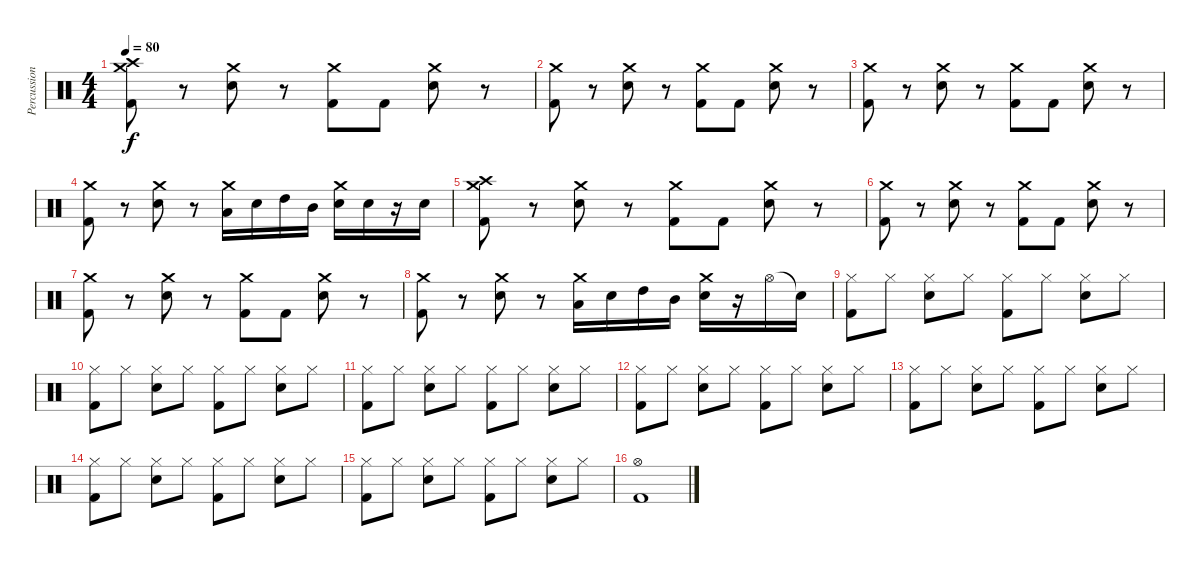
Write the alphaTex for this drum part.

\track ("Percussion" "Percussion") {instrument percussion}
\staff {score}
\articulation defaults
\ts (4 4)
\tempo 80
\clef neutral
\ks c
("Kick (hit) 2" "Crash medium (hit)" "Crash high (hit)").8{dy f} r.8 ("Electric Snare (hit)" "Crash medium (hit)").8 r.8 ("Kick (hit) 2" "Crash medium (hit)").8 "Kick (hit) 2".8 ("Electric Snare (hit)" "Crash medium (hit)").8 r.8 |
("Kick (hit) 2" "Crash medium (hit)").8 r.8 ("Electric Snare (hit)" "Crash medium (hit)").8 r.8 ("Kick (hit) 2" "Crash medium (hit)").8 "Kick (hit) 2".8 ("Electric Snare (hit)" "Crash medium (hit)").8 r.8 |
("Kick (hit) 2" "Crash medium (hit)").8 r.8 ("Electric Snare (hit)" "Crash medium (hit)").8 r.8 ("Kick (hit) 2" "Crash medium (hit)").8 "Kick (hit) 2".8 ("Electric Snare (hit)" "Crash medium (hit)").8 r.8 |
("Kick (hit) 2" "Crash medium (hit)").8 r.8 ("Electric Snare (hit)" "Crash medium (hit)").8 r.8 ("Low Tom (hit)" "Crash medium (hit)").16 "Electric Snare (hit)".16 "High Tom (hit)".16 "Mid Tom (hit)".16 ("Electric Snare (hit)" "Crash medium (hit)").16 "Electric Snare (hit)".16 r.16 "Electric Snare (hit)".16 |
("Kick (hit) 2" "Crash medium (hit)" "Crash high (hit)").8 r.8 ("Electric Snare (hit)" "Crash medium (hit)").8 r.8 ("Kick (hit) 2" "Crash medium (hit)").8 "Kick (hit) 2".8 ("Electric Snare (hit)" "Crash medium (hit)").8 r.8 |
("Kick (hit) 2" "Crash medium (hit)").8 r.8 ("Electric Snare (hit)" "Crash medium (hit)").8 r.8 ("Kick (hit) 2" "Crash medium (hit)").8 "Kick (hit) 2".8 ("Electric Snare (hit)" "Crash medium (hit)").8 r.8 |
("Kick (hit) 2" "Crash medium (hit)").8 r.8 ("Electric Snare (hit)" "Crash medium (hit)").8 r.8 ("Kick (hit) 2" "Crash medium (hit)").8 "Kick (hit) 2".8 ("Electric Snare (hit)" "Crash medium (hit)").8 r.8 |
("Kick (hit) 2" "Crash medium (hit)").8 r.8 ("Electric Snare (hit)" "Crash medium (hit)").8 r.8 ("Low Tom (hit)" "Crash medium (hit)").16 "Electric Snare (hit)".16 "High Tom (hit)".16 "Mid Tom (hit)".16 ("Electric Snare (hit)" "Crash medium (hit)").16 r.16 "Hi-Hat (open)".16 "Electric Snare (hit)"{t}.16 |
("Kick (hit) 2" "Hi-Hat (closed)").8 "Hi-Hat (closed)".8 ("Electric Snare (hit)" "Hi-Hat (closed)").8 "Hi-Hat (closed)".8 ("Kick (hit) 2" "Hi-Hat (closed)").8 "Hi-Hat (closed)".8 ("Electric Snare (hit)" "Hi-Hat (closed)").8 "Hi-Hat (closed)".8 |
("Kick (hit) 2" "Hi-Hat (closed)").8 "Hi-Hat (closed)".8 ("Electric Snare (hit)" "Hi-Hat (closed)").8 "Hi-Hat (closed)".8 ("Kick (hit) 2" "Hi-Hat (closed)").8 "Hi-Hat (closed)".8 ("Electric Snare (hit)" "Hi-Hat (closed)").8 "Hi-Hat (closed)".8 |
("Kick (hit) 2" "Hi-Hat (closed)").8 "Hi-Hat (closed)".8 ("Electric Snare (hit)" "Hi-Hat (closed)").8 "Hi-Hat (closed)".8 ("Kick (hit) 2" "Hi-Hat (closed)").8 "Hi-Hat (closed)".8 ("Electric Snare (hit)" "Hi-Hat (closed)").8 "Hi-Hat (closed)".8 |
("Kick (hit) 2" "Hi-Hat (closed)").8 "Hi-Hat (closed)".8 ("Electric Snare (hit)" "Hi-Hat (closed)").8 "Hi-Hat (closed)".8 ("Kick (hit) 2" "Hi-Hat (closed)").8 "Hi-Hat (closed)".8 ("Electric Snare (hit)" "Hi-Hat (closed)").8 "Hi-Hat (closed)".8 |
("Kick (hit) 2" "Hi-Hat (closed)").8 "Hi-Hat (closed)".8 ("Electric Snare (hit)" "Hi-Hat (closed)").8 "Hi-Hat (closed)".8 ("Kick (hit) 2" "Hi-Hat (closed)").8 "Hi-Hat (closed)".8 ("Electric Snare (hit)" "Hi-Hat (closed)").8 "Hi-Hat (closed)".8 |
("Kick (hit) 2" "Hi-Hat (closed)").8 "Hi-Hat (closed)".8 ("Electric Snare (hit)" "Hi-Hat (closed)").8 "Hi-Hat (closed)".8 ("Kick (hit) 2" "Hi-Hat (closed)").8 "Hi-Hat (closed)".8 ("Electric Snare (hit)" "Hi-Hat (closed)").8 "Hi-Hat (closed)".8 |
("Kick (hit) 2" "Hi-Hat (closed)").8 "Hi-Hat (closed)".8 ("Electric Snare (hit)" "Hi-Hat (closed)").8 "Hi-Hat (closed)".8 ("Kick (hit) 2" "Hi-Hat (closed)").8 "Hi-Hat (closed)".8 ("Electric Snare (hit)" "Hi-Hat (closed)").8 "Hi-Hat (closed)".8 |
("Kick (hit) 2" "Hi-Hat (open)").1
